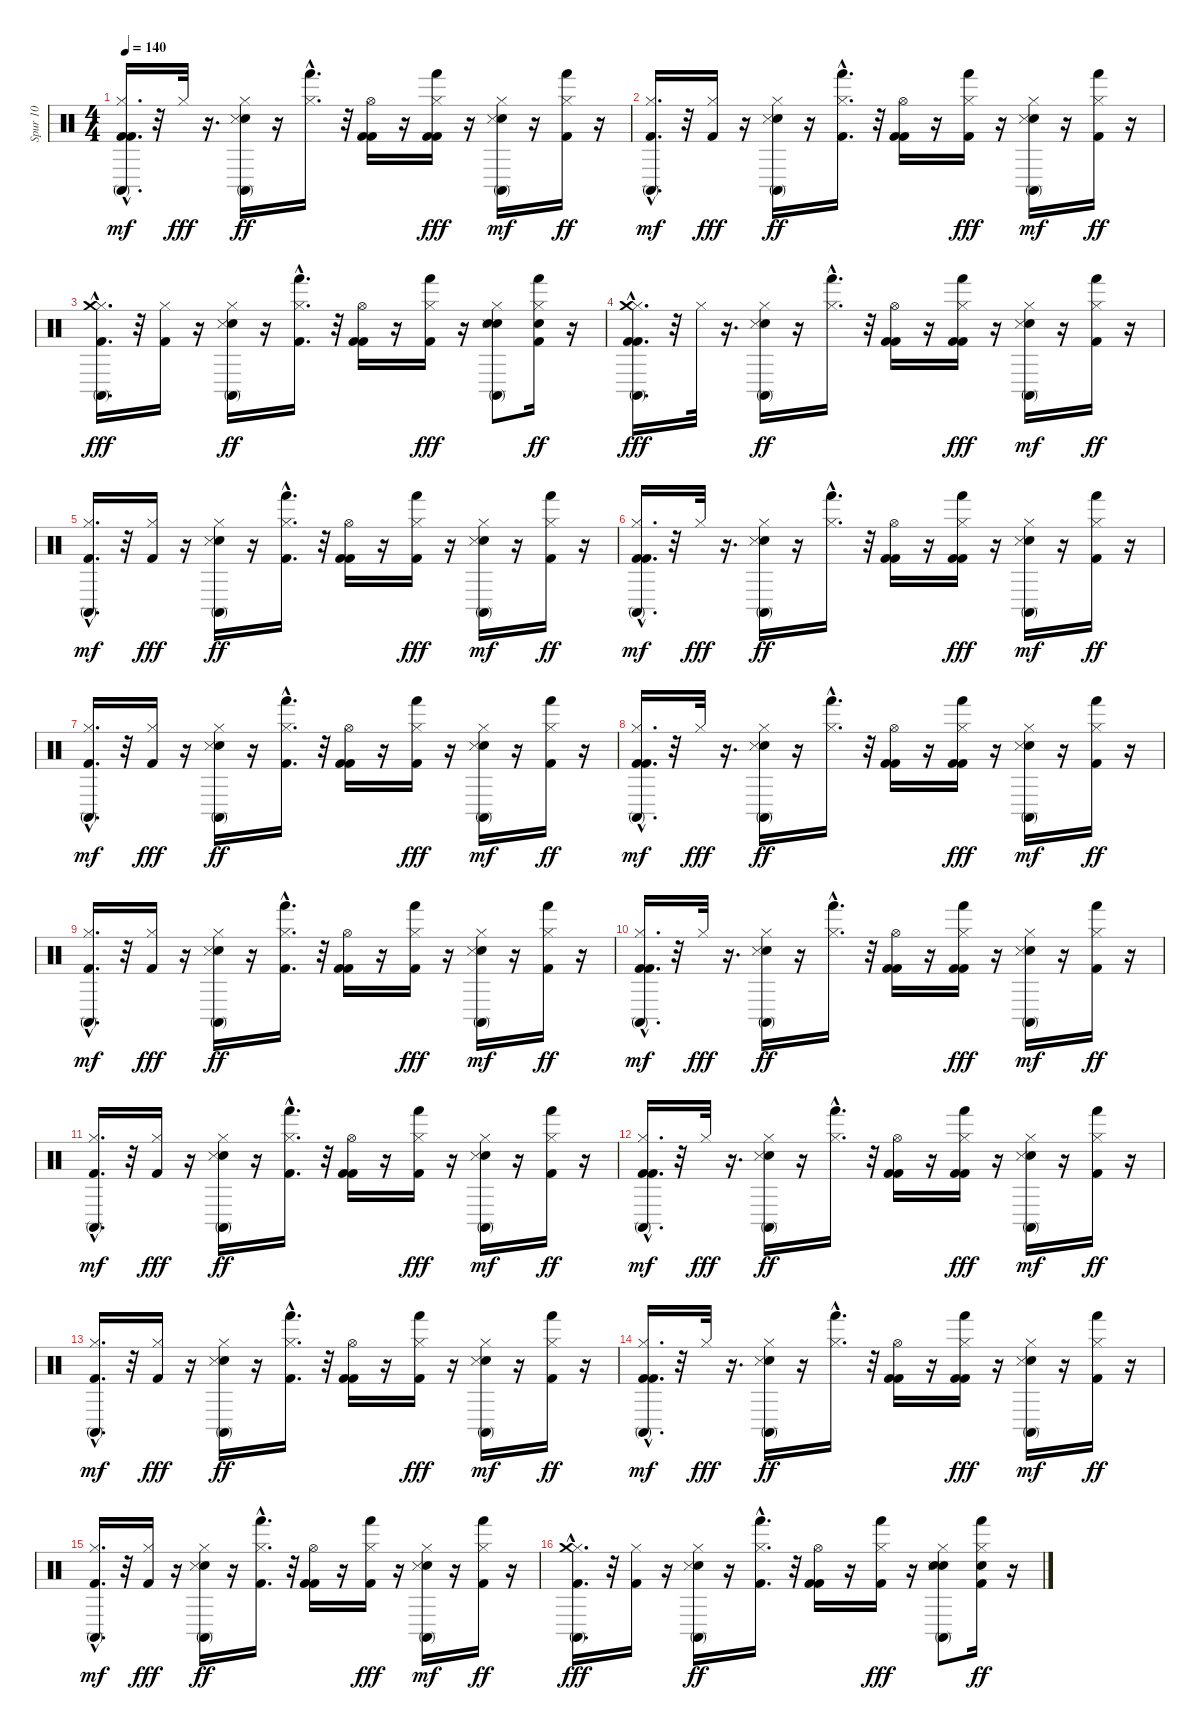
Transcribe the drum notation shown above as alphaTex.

\track ("Spur 10" "Spur 10") {instrument percussion}
\staff {score}
\articulation defaults
\ts (4 4)
\tempo 140
\clef neutral
\ks c
("Hi-Hat (closed)" "Kick (hit) 2" "Kick (hit) 2" "Conga high (mute)"{hac}).16{d dy mf} r.32 "Hi-Hat (closed)".32{dy fff} r.16{d} ("Hi-Hat (closed)" "Electric Snare (hit)" "Snare (side stick) 3" "Conga high (mute)").16{dy ff} r.16 ("Hi-Hat (closed)" "Hand (hit)"{hac}).16{d} r.32 ("Hi-Hat (open)" "Kick (hit) 2" "Kick (hit) 2").16 r.16 ("Hi-Hat (closed)" "Kick (hit) 2" "Kick (hit) 2" "Hand (hit)").16{dy fff} r.16 ("Hi-Hat (closed)" "Electric Snare (hit)" "Snare (side stick) 3" "Conga high (mute)").16{dy mf} r.16 ("Hi-Hat (closed)" "Kick (hit) 2" "Hand (hit)").16{dy ff} r.16 |
("Hi-Hat (closed)" "Kick (hit) 2" "Conga high (mute)"{hac}).16{d dy mf} r.32 ("Kick (hit) 2" "Hi-Hat (closed)").16{dy fff} r.16 ("Electric Snare (hit)" "Hi-Hat (closed)" "Snare (side stick) 3" "Conga high (mute)").16{dy ff} r.16 ("Kick (hit) 2" "Hi-Hat (closed)" "Hand (hit)"{hac}).16{d} r.32 ("Kick (hit) 2" "Hi-Hat (open)" "Kick (hit) 2").16 r.16 ("Hi-Hat (closed)" "Kick (hit) 2" "Hand (hit)").16{dy fff} r.16 ("Electric Snare (hit)" "Hi-Hat (closed)" "Snare (side stick) 3" "Conga high (mute)").16{dy mf} r.16 ("Kick (hit) 2" "Hi-Hat (closed)" "Hand (hit)").16{dy ff} r.16 |
("Hi-Hat (closed)" "Kick (hit) 2" "Conga high (mute)"{hac} "Crash medium (hit)").16{d dy fff} r.32 ("Hi-Hat (closed)" "Kick (hit) 2").16 r.16 ("Hi-Hat (closed)" "Electric Snare (hit)" "Snare (side stick) 3" "Conga high (mute)").16{dy ff} r.16 ("Hi-Hat (closed)" "Kick (hit) 2" "Hand (hit)"{hac}).16{d} r.32 ("Hi-Hat (open)" "Kick (hit) 2" "Kick (hit) 2").16 r.16 ("Hi-Hat (closed)" "Kick (hit) 2" "Hand (hit)").16{dy fff} r.16 ("Hi-Hat (closed)" "Electric Snare (hit)" "Snare (side stick) 3" "Conga high (mute)" "Electric Snare (hit)").8 ("Hi-Hat (closed)" "Kick (hit) 2" "Hand (hit)" "Electric Snare (hit)").16{dy ff} r.16 |
("Kick (hit) 2" "Hi-Hat (closed)" "Kick (hit) 2" "Conga high (mute)"{hac} "Crash medium (hit)").16{d dy fff} r.32 "Hi-Hat (closed)".32 r.16{d} ("Electric Snare (hit)" "Hi-Hat (closed)" "Snare (side stick) 3" "Conga high (mute)").16{dy ff} r.16 ("Hi-Hat (closed)" "Hand (hit)"{hac}).16{d} r.32 ("Kick (hit) 2" "Hi-Hat (open)" "Kick (hit) 2").16 r.16 ("Kick (hit) 2" "Hi-Hat (closed)" "Kick (hit) 2" "Hand (hit)").16{dy fff} r.16 ("Electric Snare (hit)" "Hi-Hat (closed)" "Snare (side stick) 3" "Conga high (mute)").16{dy mf} r.16 ("Kick (hit) 2" "Hi-Hat (closed)" "Hand (hit)").16{dy ff} r.16 |
("Hi-Hat (closed)" "Kick (hit) 2" "Conga high (mute)"{hac}).16{d dy mf} r.32 ("Kick (hit) 2" "Hi-Hat (closed)").16{dy fff} r.16 ("Electric Snare (hit)" "Hi-Hat (closed)" "Snare (side stick) 3" "Conga high (mute)").16{dy ff} r.16 ("Kick (hit) 2" "Hi-Hat (closed)" "Hand (hit)"{hac}).16{d} r.32 ("Kick (hit) 2" "Hi-Hat (open)" "Kick (hit) 2").16 r.16 ("Hi-Hat (closed)" "Kick (hit) 2" "Hand (hit)").16{dy fff} r.16 ("Electric Snare (hit)" "Hi-Hat (closed)" "Snare (side stick) 3" "Conga high (mute)").16{dy mf} r.16 ("Kick (hit) 2" "Hi-Hat (closed)" "Hand (hit)").16{dy ff} r.16 |
("Kick (hit) 2" "Hi-Hat (closed)" "Kick (hit) 2" "Conga high (mute)"{hac}).16{d dy mf} r.32 "Hi-Hat (closed)".32{dy fff} r.16{d} ("Electric Snare (hit)" "Hi-Hat (closed)" "Snare (side stick) 3" "Conga high (mute)").16{dy ff} r.16 ("Hi-Hat (closed)" "Hand (hit)"{hac}).16{d} r.32 ("Kick (hit) 2" "Hi-Hat (open)" "Kick (hit) 2").16 r.16 ("Kick (hit) 2" "Hi-Hat (closed)" "Kick (hit) 2" "Hand (hit)").16{dy fff} r.16 ("Electric Snare (hit)" "Hi-Hat (closed)" "Snare (side stick) 3" "Conga high (mute)").16{dy mf} r.16 ("Kick (hit) 2" "Hi-Hat (closed)" "Hand (hit)").16{dy ff} r.16 |
("Hi-Hat (closed)" "Kick (hit) 2" "Conga high (mute)"{hac}).16{d dy mf} r.32 ("Kick (hit) 2" "Hi-Hat (closed)").16{dy fff} r.16 ("Electric Snare (hit)" "Hi-Hat (closed)" "Snare (side stick) 3" "Conga high (mute)").16{dy ff} r.16 ("Kick (hit) 2" "Hi-Hat (closed)" "Hand (hit)"{hac}).16{d} r.32 ("Kick (hit) 2" "Hi-Hat (open)" "Kick (hit) 2").16 r.16 ("Hi-Hat (closed)" "Kick (hit) 2" "Hand (hit)").16{dy fff} r.16 ("Electric Snare (hit)" "Hi-Hat (closed)" "Snare (side stick) 3" "Conga high (mute)").16{dy mf} r.16 ("Kick (hit) 2" "Hi-Hat (closed)" "Hand (hit)").16{dy ff} r.16 |
("Hi-Hat (closed)" "Kick (hit) 2" "Kick (hit) 2" "Conga high (mute)"{hac}).16{d dy mf} r.32 "Hi-Hat (closed)".32{dy fff} r.16{d} ("Hi-Hat (closed)" "Electric Snare (hit)" "Snare (side stick) 3" "Conga high (mute)").16{dy ff} r.16 ("Hi-Hat (closed)" "Hand (hit)"{hac}).16{d} r.32 ("Hi-Hat (open)" "Kick (hit) 2" "Kick (hit) 2").16 r.16 ("Hi-Hat (closed)" "Kick (hit) 2" "Kick (hit) 2" "Hand (hit)").16{dy fff} r.16 ("Hi-Hat (closed)" "Electric Snare (hit)" "Snare (side stick) 3" "Conga high (mute)").16{dy mf} r.16 ("Hi-Hat (closed)" "Kick (hit) 2" "Hand (hit)").16{dy ff} r.16 |
("Hi-Hat (closed)" "Kick (hit) 2" "Conga high (mute)"{hac}).16{d dy mf} r.32 ("Hi-Hat (closed)" "Kick (hit) 2").16{dy fff} r.16 ("Hi-Hat (closed)" "Electric Snare (hit)" "Snare (side stick) 3" "Conga high (mute)").16{dy ff} r.16 ("Hi-Hat (closed)" "Kick (hit) 2" "Hand (hit)"{hac}).16{d} r.32 ("Hi-Hat (open)" "Kick (hit) 2" "Kick (hit) 2").16 r.16 ("Hi-Hat (closed)" "Kick (hit) 2" "Hand (hit)").16{dy fff} r.16 ("Hi-Hat (closed)" "Electric Snare (hit)" "Snare (side stick) 3" "Conga high (mute)").16{dy mf} r.16 ("Hi-Hat (closed)" "Kick (hit) 2" "Hand (hit)").16{dy ff} r.16 |
("Hi-Hat (closed)" "Kick (hit) 2" "Kick (hit) 2" "Conga high (mute)"{hac}).16{d dy mf} r.32 "Hi-Hat (closed)".32{dy fff} r.16{d} ("Hi-Hat (closed)" "Electric Snare (hit)" "Snare (side stick) 3" "Conga high (mute)").16{dy ff} r.16 ("Hi-Hat (closed)" "Hand (hit)"{hac}).16{d} r.32 ("Hi-Hat (open)" "Kick (hit) 2" "Kick (hit) 2").16 r.16 ("Hi-Hat (closed)" "Kick (hit) 2" "Kick (hit) 2" "Hand (hit)").16{dy fff} r.16 ("Hi-Hat (closed)" "Electric Snare (hit)" "Snare (side stick) 3" "Conga high (mute)").16{dy mf} r.16 ("Hi-Hat (closed)" "Kick (hit) 2" "Hand (hit)").16{dy ff} r.16 |
("Hi-Hat (closed)" "Kick (hit) 2" "Conga high (mute)"{hac}).16{d dy mf} r.32 ("Kick (hit) 2" "Hi-Hat (closed)").16{dy fff} r.16 ("Electric Snare (hit)" "Hi-Hat (closed)" "Snare (side stick) 3" "Conga high (mute)").16{dy ff} r.16 ("Kick (hit) 2" "Hi-Hat (closed)" "Hand (hit)"{hac}).16{d} r.32 ("Kick (hit) 2" "Hi-Hat (open)" "Kick (hit) 2").16 r.16 ("Hi-Hat (closed)" "Kick (hit) 2" "Hand (hit)").16{dy fff} r.16 ("Electric Snare (hit)" "Hi-Hat (closed)" "Snare (side stick) 3" "Conga high (mute)").16{dy mf} r.16 ("Kick (hit) 2" "Hi-Hat (closed)" "Hand (hit)").16{dy ff} r.16 |
("Hi-Hat (closed)" "Kick (hit) 2" "Kick (hit) 2" "Conga high (mute)"{hac}).16{d dy mf} r.32 "Hi-Hat (closed)".32{dy fff} r.16{d} ("Hi-Hat (closed)" "Electric Snare (hit)" "Snare (side stick) 3" "Conga high (mute)").16{dy ff} r.16 ("Hi-Hat (closed)" "Hand (hit)"{hac}).16{d} r.32 ("Hi-Hat (open)" "Kick (hit) 2" "Kick (hit) 2").16 r.16 ("Hi-Hat (closed)" "Kick (hit) 2" "Kick (hit) 2" "Hand (hit)").16{dy fff} r.16 ("Hi-Hat (closed)" "Electric Snare (hit)" "Snare (side stick) 3" "Conga high (mute)").16{dy mf} r.16 ("Hi-Hat (closed)" "Kick (hit) 2" "Hand (hit)").16{dy ff} r.16 |
("Hi-Hat (closed)" "Kick (hit) 2" "Conga high (mute)"{hac}).16{d dy mf} r.32 ("Hi-Hat (closed)" "Kick (hit) 2").16{dy fff} r.16 ("Hi-Hat (closed)" "Electric Snare (hit)" "Snare (side stick) 3" "Conga high (mute)").16{dy ff} r.16 ("Hi-Hat (closed)" "Kick (hit) 2" "Hand (hit)"{hac}).16{d} r.32 ("Hi-Hat (open)" "Kick (hit) 2" "Kick (hit) 2").16 r.16 ("Hi-Hat (closed)" "Kick (hit) 2" "Hand (hit)").16{dy fff} r.16 ("Hi-Hat (closed)" "Electric Snare (hit)" "Snare (side stick) 3" "Conga high (mute)").16{dy mf} r.16 ("Hi-Hat (closed)" "Kick (hit) 2" "Hand (hit)").16{dy ff} r.16 |
("Hi-Hat (closed)" "Kick (hit) 2" "Kick (hit) 2" "Conga high (mute)"{hac}).16{d dy mf} r.32 "Hi-Hat (closed)".32{dy fff} r.16{d} ("Hi-Hat (closed)" "Electric Snare (hit)" "Snare (side stick) 3" "Conga high (mute)").16{dy ff} r.16 ("Hi-Hat (closed)" "Hand (hit)"{hac}).16{d} r.32 ("Hi-Hat (open)" "Kick (hit) 2" "Kick (hit) 2").16 r.16 ("Hi-Hat (closed)" "Kick (hit) 2" "Kick (hit) 2" "Hand (hit)").16{dy fff} r.16 ("Hi-Hat (closed)" "Electric Snare (hit)" "Snare (side stick) 3" "Conga high (mute)").16{dy mf} r.16 ("Hi-Hat (closed)" "Kick (hit) 2" "Hand (hit)").16{dy ff} r.16 |
("Hi-Hat (closed)" "Kick (hit) 2" "Conga high (mute)"{hac}).16{d dy mf} r.32 ("Kick (hit) 2" "Hi-Hat (closed)").16{dy fff} r.16 ("Electric Snare (hit)" "Hi-Hat (closed)" "Snare (side stick) 3" "Conga high (mute)").16{dy ff} r.16 ("Kick (hit) 2" "Hi-Hat (closed)" "Hand (hit)"{hac}).16{d} r.32 ("Kick (hit) 2" "Hi-Hat (open)" "Kick (hit) 2").16 r.16 ("Hi-Hat (closed)" "Kick (hit) 2" "Hand (hit)").16{dy fff} r.16 ("Electric Snare (hit)" "Hi-Hat (closed)" "Snare (side stick) 3" "Conga high (mute)").16{dy mf} r.16 ("Kick (hit) 2" "Hi-Hat (closed)" "Hand (hit)").16{dy ff} r.16 |
("Hi-Hat (closed)" "Kick (hit) 2" "Conga high (mute)"{hac} "Crash medium (hit)").16{d dy fff} r.32 ("Hi-Hat (closed)" "Kick (hit) 2").16 r.16 ("Hi-Hat (closed)" "Electric Snare (hit)" "Snare (side stick) 3" "Conga high (mute)").16{dy ff} r.16 ("Hi-Hat (closed)" "Kick (hit) 2" "Hand (hit)"{hac}).16{d} r.32 ("Hi-Hat (open)" "Kick (hit) 2" "Kick (hit) 2").16 r.16 ("Hi-Hat (closed)" "Kick (hit) 2" "Hand (hit)").16{dy fff} r.16 ("Hi-Hat (closed)" "Electric Snare (hit)" "Snare (side stick) 3" "Conga high (mute)" "Electric Snare (hit)").8 ("Hi-Hat (closed)" "Kick (hit) 2" "Hand (hit)" "Electric Snare (hit)").16{dy ff} r.16
